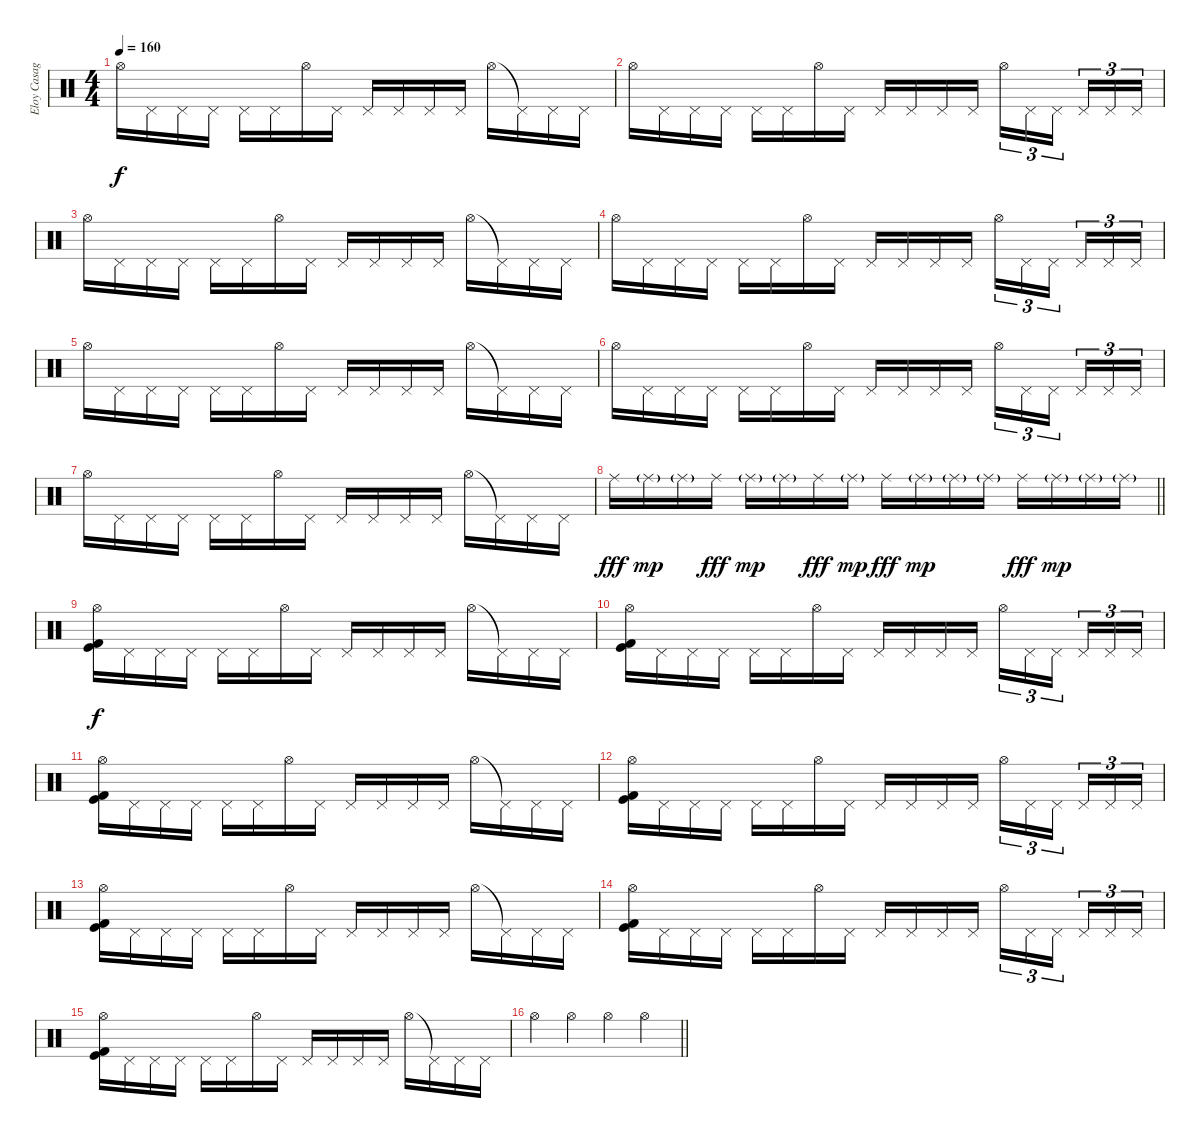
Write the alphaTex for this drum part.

\track ("Eloy Casagrande" "Eloy Casag") {instrument percussion}
\staff {score}
\articulation defaults
\ts (4 4)
\tempo 160
\clef neutral
\ks c "Hi-Hat (open)".16{dy f} "Pedal Hi-Hat (hit)".16 "Pedal Hi-Hat (hit)".16 "Pedal Hi-Hat (hit)".16 "Pedal Hi-Hat (hit)".16 "Pedal Hi-Hat (hit)".16 "Hi-Hat (open)".16 "Pedal Hi-Hat (hit)".16 "Pedal Hi-Hat (hit)".16 "Pedal Hi-Hat (hit)".16 "Pedal Hi-Hat (hit)".16 "Pedal Hi-Hat (hit)".16 "Hi-Hat (open)".16 "Pedal Hi-Hat (hit)"{t}.16 "Pedal Hi-Hat (hit)".16 "Pedal Hi-Hat (hit)".16
|
"Hi-Hat (open)".16 "Pedal Hi-Hat (hit)".16 "Pedal Hi-Hat (hit)".16 "Pedal Hi-Hat (hit)".16 "Pedal Hi-Hat (hit)".16 "Pedal Hi-Hat (hit)".16 "Hi-Hat (open)".16 "Pedal Hi-Hat (hit)".16 "Pedal Hi-Hat (hit)".16 "Pedal Hi-Hat (hit)".16 "Pedal Hi-Hat (hit)".16 "Pedal Hi-Hat (hit)".16 "Hi-Hat (open)".16{tu (3 2)} "Pedal Hi-Hat (hit)".16{tu (3 2)} "Pedal Hi-Hat (hit)".16{tu (3 2)} "Pedal Hi-Hat (hit)".16{tu (3 2)} "Pedal Hi-Hat (hit)".16{tu (3 2)} "Pedal Hi-Hat (hit)".16{tu (3 2)} |
"Hi-Hat (open)".16 "Pedal Hi-Hat (hit)".16 "Pedal Hi-Hat (hit)".16 "Pedal Hi-Hat (hit)".16 "Pedal Hi-Hat (hit)".16 "Pedal Hi-Hat (hit)".16 "Hi-Hat (open)".16 "Pedal Hi-Hat (hit)".16 "Pedal Hi-Hat (hit)".16 "Pedal Hi-Hat (hit)".16 "Pedal Hi-Hat (hit)".16 "Pedal Hi-Hat (hit)".16 "Hi-Hat (open)".16 "Pedal Hi-Hat (hit)"{t}.16 "Pedal Hi-Hat (hit)".16 "Pedal Hi-Hat (hit)".16 |
"Hi-Hat (open)".16 "Pedal Hi-Hat (hit)".16 "Pedal Hi-Hat (hit)".16 "Pedal Hi-Hat (hit)".16 "Pedal Hi-Hat (hit)".16 "Pedal Hi-Hat (hit)".16 "Hi-Hat (open)".16 "Pedal Hi-Hat (hit)".16 "Pedal Hi-Hat (hit)".16 "Pedal Hi-Hat (hit)".16 "Pedal Hi-Hat (hit)".16 "Pedal Hi-Hat (hit)".16 "Hi-Hat (open)".16{tu (3 2)} "Pedal Hi-Hat (hit)".16{tu (3 2)} "Pedal Hi-Hat (hit)".16{tu (3 2)} "Pedal Hi-Hat (hit)".16{tu (3 2)} "Pedal Hi-Hat (hit)".16{tu (3 2)} "Pedal Hi-Hat (hit)".16{tu (3 2)} |
"Hi-Hat (open)".16 "Pedal Hi-Hat (hit)".16 "Pedal Hi-Hat (hit)".16 "Pedal Hi-Hat (hit)".16 "Pedal Hi-Hat (hit)".16 "Pedal Hi-Hat (hit)".16 "Hi-Hat (open)".16 "Pedal Hi-Hat (hit)".16 "Pedal Hi-Hat (hit)".16 "Pedal Hi-Hat (hit)".16 "Pedal Hi-Hat (hit)".16 "Pedal Hi-Hat (hit)".16 "Hi-Hat (open)".16 "Pedal Hi-Hat (hit)"{t}.16 "Pedal Hi-Hat (hit)".16 "Pedal Hi-Hat (hit)".16 |
"Hi-Hat (open)".16 "Pedal Hi-Hat (hit)".16 "Pedal Hi-Hat (hit)".16 "Pedal Hi-Hat (hit)".16 "Pedal Hi-Hat (hit)".16 "Pedal Hi-Hat (hit)".16 "Hi-Hat (open)".16 "Pedal Hi-Hat (hit)".16 "Pedal Hi-Hat (hit)".16 "Pedal Hi-Hat (hit)".16 "Pedal Hi-Hat (hit)".16 "Pedal Hi-Hat (hit)".16 "Hi-Hat (open)".16{tu (3 2)} "Pedal Hi-Hat (hit)".16{tu (3 2)} "Pedal Hi-Hat (hit)".16{tu (3 2)} "Pedal Hi-Hat (hit)".16{tu (3 2)} "Pedal Hi-Hat (hit)".16{tu (3 2)} "Pedal Hi-Hat (hit)".16{tu (3 2)} |
"Hi-Hat (open)".16 "Pedal Hi-Hat (hit)".16 "Pedal Hi-Hat (hit)".16 "Pedal Hi-Hat (hit)".16 "Pedal Hi-Hat (hit)".16 "Pedal Hi-Hat (hit)".16 "Hi-Hat (open)".16 "Pedal Hi-Hat (hit)".16 "Pedal Hi-Hat (hit)".16 "Pedal Hi-Hat (hit)".16 "Pedal Hi-Hat (hit)".16 "Pedal Hi-Hat (hit)".16 "Hi-Hat (open)".16 "Pedal Hi-Hat (hit)"{t}.16 "Pedal Hi-Hat (hit)".16 "Pedal Hi-Hat (hit)".16 |
\barLineRight lightlight "Ride (middle)".16{dy fff} "Ride (middle)"{g}.16{dy mp} "Ride (middle)"{g}.16 "Ride (middle)".16{dy fff} "Ride (middle)"{g}.16{dy mp} "Ride (middle)"{g}.16 "Ride (middle)".16{dy fff} "Ride (middle)"{g}.16{dy mp} "Ride (middle)".16{dy fff} "Ride (middle)"{g}.16{dy mp} "Ride (middle)"{g}.16 "Ride (middle)"{g}.16 "Ride (middle)".16{dy fff} "Ride (middle)"{g}.16{dy mp} "Ride (middle)"{g}.16 "Ride (middle)"{g}.16
|
("Hi-Hat (open)" "Kick (hit) 2" "Kick (hit)").16{dy f} "Pedal Hi-Hat (hit)".16 "Pedal Hi-Hat (hit)".16 "Pedal Hi-Hat (hit)".16 "Pedal Hi-Hat (hit)".16 "Pedal Hi-Hat (hit)".16 "Hi-Hat (open)".16 "Pedal Hi-Hat (hit)".16 "Pedal Hi-Hat (hit)".16 "Pedal Hi-Hat (hit)".16 "Pedal Hi-Hat (hit)".16 "Pedal Hi-Hat (hit)".16 "Hi-Hat (open)".16 "Pedal Hi-Hat (hit)"{t}.16 "Pedal Hi-Hat (hit)".16 "Pedal Hi-Hat (hit)".16 |
("Hi-Hat (open)" "Kick (hit)" "Kick (hit) 2").16 "Pedal Hi-Hat (hit)".16 "Pedal Hi-Hat (hit)".16 "Pedal Hi-Hat (hit)".16 "Pedal Hi-Hat (hit)".16 "Pedal Hi-Hat (hit)".16 "Hi-Hat (open)".16 "Pedal Hi-Hat (hit)".16 "Pedal Hi-Hat (hit)".16 "Pedal Hi-Hat (hit)".16 "Pedal Hi-Hat (hit)".16 "Pedal Hi-Hat (hit)".16 "Hi-Hat (open)".16{tu (3 2)} "Pedal Hi-Hat (hit)".16{tu (3 2)} "Pedal Hi-Hat (hit)".16{tu (3 2)} "Pedal Hi-Hat (hit)".16{tu (3 2)} "Pedal Hi-Hat (hit)".16{tu (3 2)} "Pedal Hi-Hat (hit)".16{tu (3 2)} |
("Hi-Hat (open)" "Kick (hit) 2" "Kick (hit)").16 "Pedal Hi-Hat (hit)".16 "Pedal Hi-Hat (hit)".16 "Pedal Hi-Hat (hit)".16 "Pedal Hi-Hat (hit)".16 "Pedal Hi-Hat (hit)".16 "Hi-Hat (open)".16 "Pedal Hi-Hat (hit)".16 "Pedal Hi-Hat (hit)".16 "Pedal Hi-Hat (hit)".16 "Pedal Hi-Hat (hit)".16 "Pedal Hi-Hat (hit)".16 "Hi-Hat (open)".16 "Pedal Hi-Hat (hit)"{t}.16 "Pedal Hi-Hat (hit)".16 "Pedal Hi-Hat (hit)".16 |
("Hi-Hat (open)" "Kick (hit) 2" "Kick (hit)").16 "Pedal Hi-Hat (hit)".16 "Pedal Hi-Hat (hit)".16 "Pedal Hi-Hat (hit)".16 "Pedal Hi-Hat (hit)".16 "Pedal Hi-Hat (hit)".16 "Hi-Hat (open)".16 "Pedal Hi-Hat (hit)".16 "Pedal Hi-Hat (hit)".16 "Pedal Hi-Hat (hit)".16 "Pedal Hi-Hat (hit)".16 "Pedal Hi-Hat (hit)".16 "Hi-Hat (open)".16{tu (3 2)} "Pedal Hi-Hat (hit)".16{tu (3 2)} "Pedal Hi-Hat (hit)".16{tu (3 2)} "Pedal Hi-Hat (hit)".16{tu (3 2)} "Pedal Hi-Hat (hit)".16{tu (3 2)} "Pedal Hi-Hat (hit)".16{tu (3 2)} |
("Hi-Hat (open)" "Kick (hit) 2" "Kick (hit)").16 "Pedal Hi-Hat (hit)".16 "Pedal Hi-Hat (hit)".16 "Pedal Hi-Hat (hit)".16 "Pedal Hi-Hat (hit)".16 "Pedal Hi-Hat (hit)".16 "Hi-Hat (open)".16 "Pedal Hi-Hat (hit)".16 "Pedal Hi-Hat (hit)".16 "Pedal Hi-Hat (hit)".16 "Pedal Hi-Hat (hit)".16 "Pedal Hi-Hat (hit)".16 "Hi-Hat (open)".16 "Pedal Hi-Hat (hit)"{t}.16 "Pedal Hi-Hat (hit)".16 "Pedal Hi-Hat (hit)".16 |
("Hi-Hat (open)" "Kick (hit)" "Kick (hit) 2").16 "Pedal Hi-Hat (hit)".16 "Pedal Hi-Hat (hit)".16 "Pedal Hi-Hat (hit)".16 "Pedal Hi-Hat (hit)".16 "Pedal Hi-Hat (hit)".16 "Hi-Hat (open)".16 "Pedal Hi-Hat (hit)".16 "Pedal Hi-Hat (hit)".16 "Pedal Hi-Hat (hit)".16 "Pedal Hi-Hat (hit)".16 "Pedal Hi-Hat (hit)".16 "Hi-Hat (open)".16{tu (3 2)} "Pedal Hi-Hat (hit)".16{tu (3 2)} "Pedal Hi-Hat (hit)".16{tu (3 2)} "Pedal Hi-Hat (hit)".16{tu (3 2)} "Pedal Hi-Hat (hit)".16{tu (3 2)} "Pedal Hi-Hat (hit)".16{tu (3 2)} |
("Hi-Hat (open)" "Kick (hit)" "Kick (hit) 2").16 "Pedal Hi-Hat (hit)".16 "Pedal Hi-Hat (hit)".16 "Pedal Hi-Hat (hit)".16 "Pedal Hi-Hat (hit)".16 "Pedal Hi-Hat (hit)".16 "Hi-Hat (open)".16 "Pedal Hi-Hat (hit)".16 "Pedal Hi-Hat (hit)".16 "Pedal Hi-Hat (hit)".16 "Pedal Hi-Hat (hit)".16 "Pedal Hi-Hat (hit)".16 "Hi-Hat (open)".16 "Pedal Hi-Hat (hit)"{t}.16 "Pedal Hi-Hat (hit)".16 "Pedal Hi-Hat (hit)".16 |
\barLineRight lightlight "Hi-Hat (open)".4 "Hi-Hat (open)".4 "Hi-Hat (open)".4 "Hi-Hat (open)".4
